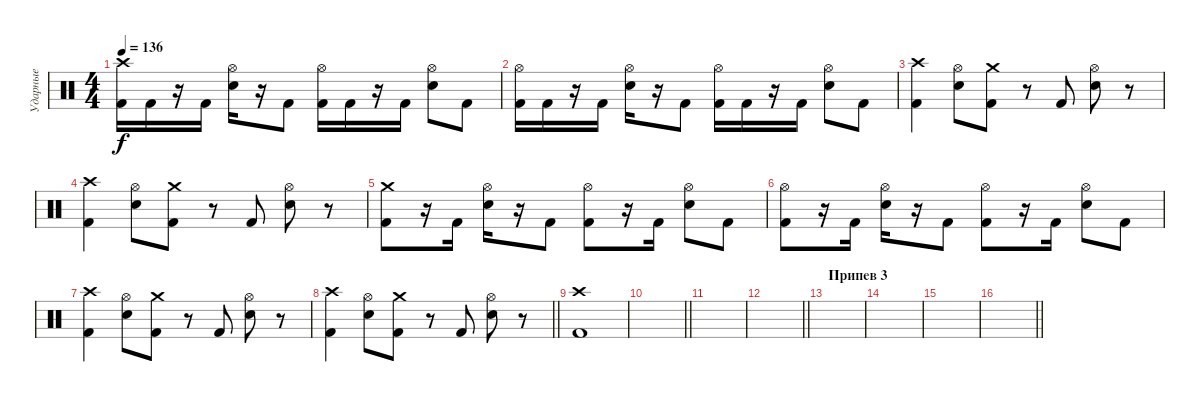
\track ("Ударные" "Ударные") {instrument percussion}
\staff {score}
\articulation defaults
\ts (4 4)
\tempo 136
\clef neutral
\ks c
("Crash high (hit)" "Kick (hit) 2").16{dy f} "Kick (hit) 2".16 r.16 "Kick (hit) 2".16 ("Hi-Hat (open)" "Snare (hit) 2").16 r.16 "Kick (hit) 2".8 ("Hi-Hat (open)" "Kick (hit) 2").16 "Kick (hit) 2".16 r.16 "Kick (hit) 2".16 ("Hi-Hat (open)" "Snare (hit) 2").8 "Kick (hit) 2".8 |
("Hi-Hat (open)" "Kick (hit) 2").16 "Kick (hit) 2".16 r.16 "Kick (hit) 2".16 ("Hi-Hat (open)" "Snare (hit) 2").16 r.16 "Kick (hit) 2".8 ("Hi-Hat (open)" "Kick (hit) 2").16 "Kick (hit) 2".16 r.16 "Kick (hit) 2".16 ("Hi-Hat (open)" "Snare (hit) 2").8 "Kick (hit) 2".8 |
("Crash high (hit)" "Kick (hit) 2").4 ("Hi-Hat (open)" "Snare (hit) 2").8 ("Crash medium (hit)" "Kick (hit) 2").8 r.8 "Kick (hit) 2".8 ("Hi-Hat (open)" "Snare (hit) 2").8 r.8 |
("Crash high (hit)" "Kick (hit) 2").4 ("Hi-Hat (open)" "Snare (hit) 2").8 ("Crash medium (hit)" "Kick (hit) 2").8 r.8 "Kick (hit) 2".8 ("Hi-Hat (open)" "Snare (hit) 2").8 r.8 |
("Crash medium (hit)" "Kick (hit) 2").8 r.16 "Kick (hit) 2".16 ("Hi-Hat (open)" "Snare (hit) 2").16 r.16 "Kick (hit) 2".8 ("Hi-Hat (open)" "Kick (hit) 2").8 r.16 "Kick (hit) 2".16 ("Hi-Hat (open)" "Snare (hit) 2").8 "Kick (hit) 2".8 |
("Hi-Hat (open)" "Kick (hit) 2").8 r.16 "Kick (hit) 2".16 ("Hi-Hat (open)" "Snare (hit) 2").16 r.16 "Kick (hit) 2".8 ("Hi-Hat (open)" "Kick (hit) 2").8 r.16 "Kick (hit) 2".16 ("Hi-Hat (open)" "Snare (hit) 2").8 "Kick (hit) 2".8 |
("Crash high (hit)" "Kick (hit) 2").4 ("Hi-Hat (open)" "Snare (hit) 2").8 ("Crash medium (hit)" "Kick (hit) 2").8 r.8 "Kick (hit) 2".8 ("Hi-Hat (open)" "Snare (hit) 2").8 r.8 |
\barLineRight lightlight
("Crash high (hit)" "Kick (hit) 2").4 ("Hi-Hat (open)" "Snare (hit) 2").8 ("Crash medium (hit)" "Kick (hit) 2").8 r.8 "Kick (hit) 2".8 ("Hi-Hat (open)" "Snare (hit) 2").8 r.8 |
("Crash high (hit)" "Kick (hit) 2").1 |
\barLineRight lightlight
|
|
\barLineRight lightlight
|
\section ("" "Припев 3")
|
|
|
\barLineRight lightlight
